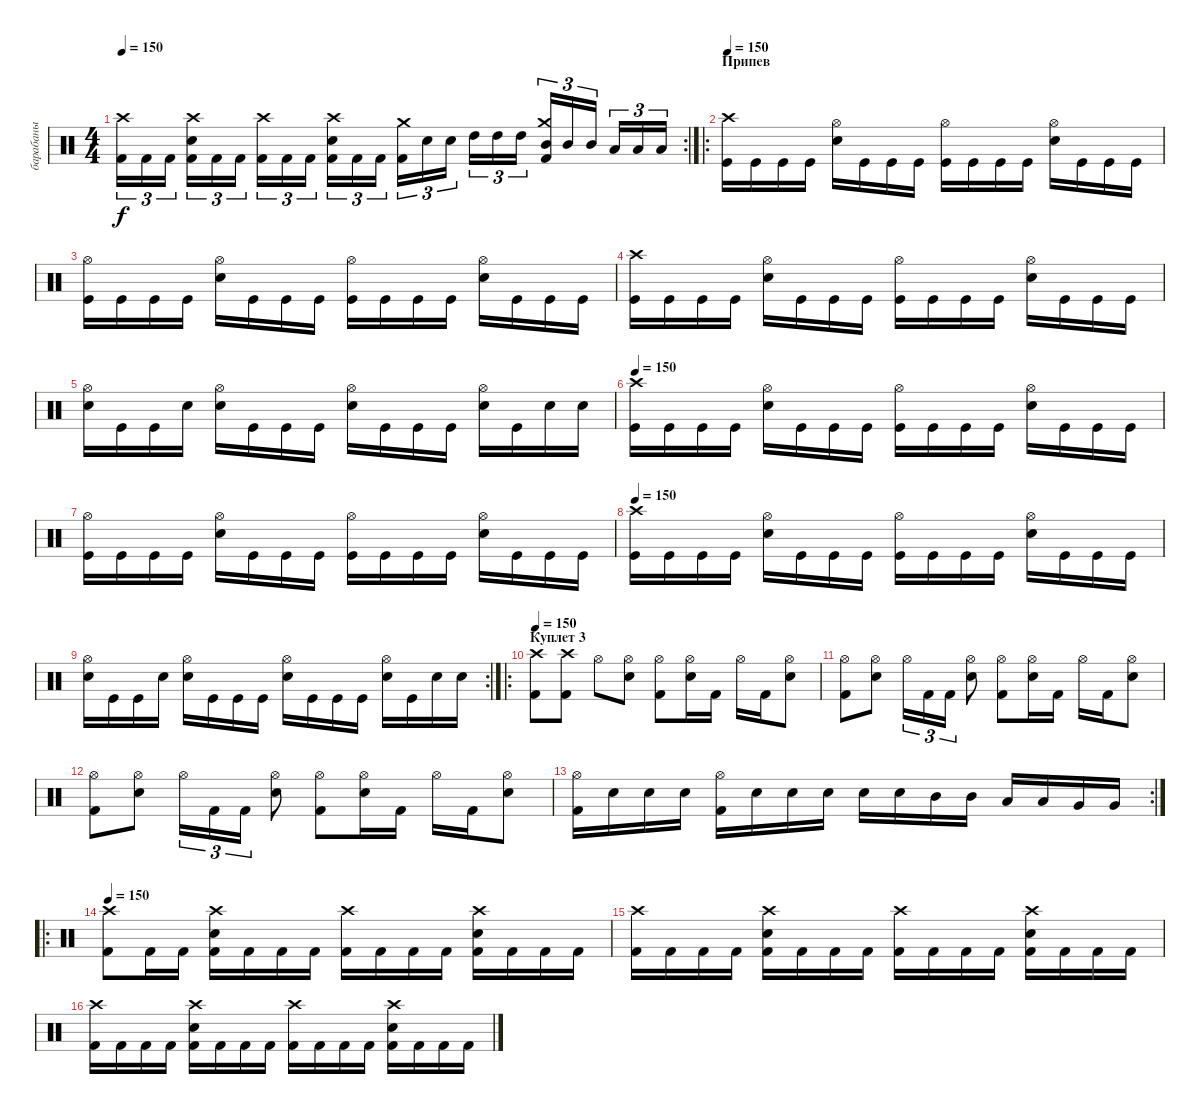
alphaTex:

\track ("барабаны" "барабаны") {instrument percussion}
\staff {score}
\articulation defaults
\rc 2
\ts (4 4)
\tempo 150
\clef neutral
\ks c
("Crash high (hit)" "Kick (hit) 2").16{tu (3 2) dy f} "Kick (hit) 2".16{tu (3 2)} "Kick (hit) 2".16{tu (3 2)} ("Crash high (hit)" "Electric Snare (hit)" "Kick (hit) 2").16{tu (3 2)} "Kick (hit) 2".16{tu (3 2)} "Kick (hit) 2".16{tu (3 2)} ("Crash high (hit)" "Kick (hit) 2").16{tu (3 2)} "Kick (hit) 2".16{tu (3 2)} "Kick (hit) 2".16{tu (3 2)} ("Crash high (hit)" "Electric Snare (hit)" "Kick (hit) 2").16{tu (3 2)} "Kick (hit) 2".16{tu (3 2)} "Kick (hit) 2".16{tu (3 2)} ("Crash medium (hit)" "Kick (hit) 2").16{tu (3 2)} "Electric Snare (hit)".16{tu (3 2)} "Electric Snare (hit)".16{tu (3 2)} "High Tom (hit)".16{tu (3 2)} "High Tom (hit)".16{tu (3 2)} "High Tom (hit)".16{tu (3 2)} ("Crash medium (hit)" "Mid Tom (hit)" "Kick (hit) 2").16{tu (3 2)} "Mid Tom (hit)".16{tu (3 2)} "Mid Tom (hit)".16{tu (3 2)} "Low Tom (hit)".16{tu (3 2)} "Low Tom (hit)".16{tu (3 2)} "Low Tom (hit)".16{tu (3 2)} |
\ro
\section ("" "Припев")
\tempo 150
("Crash high (hit)" "Kick (hit)").16 "Kick (hit)".16 "Kick (hit)".16 "Kick (hit)".16 ("Hi-Hat (open)" "Electric Snare (hit)").16 "Kick (hit)".16 "Kick (hit)".16 "Kick (hit)".16 ("Hi-Hat (open)" "Kick (hit)").16 "Kick (hit)".16 "Kick (hit)".16 "Kick (hit)".16 ("Hi-Hat (open)" "Electric Snare (hit)").16 "Kick (hit)".16 "Kick (hit)".16 "Kick (hit)".16 |
("Hi-Hat (open)" "Kick (hit)").16 "Kick (hit)".16 "Kick (hit)".16 "Kick (hit)".16 ("Hi-Hat (open)" "Electric Snare (hit)").16 "Kick (hit)".16 "Kick (hit)".16 "Kick (hit)".16 ("Hi-Hat (open)" "Kick (hit)").16 "Kick (hit)".16 "Kick (hit)".16 "Kick (hit)".16 ("Hi-Hat (open)" "Electric Snare (hit)").16 "Kick (hit)".16 "Kick (hit)".16 "Kick (hit)".16 |
("Crash high (hit)" "Kick (hit)").16 "Kick (hit)".16 "Kick (hit)".16 "Kick (hit)".16 ("Hi-Hat (open)" "Electric Snare (hit)").16 "Kick (hit)".16 "Kick (hit)".16 "Kick (hit)".16 ("Hi-Hat (open)" "Kick (hit)").16 "Kick (hit)".16 "Kick (hit)".16 "Kick (hit)".16 ("Hi-Hat (open)" "Electric Snare (hit)").16 "Kick (hit)".16 "Kick (hit)".16 "Kick (hit)".16 |
("Hi-Hat (open)" "Electric Snare (hit)").16 "Kick (hit)".16 "Kick (hit)".16 "Electric Snare (hit)".16 ("Hi-Hat (open)" "Electric Snare (hit)").16 "Kick (hit)".16 "Kick (hit)".16 "Kick (hit)".16 ("Hi-Hat (open)" "Electric Snare (hit)").16 "Kick (hit)".16 "Kick (hit)".16 "Kick (hit)".16 ("Hi-Hat (open)" "Electric Snare (hit)").16 "Kick (hit)".16 "Electric Snare (hit)".16 "Electric Snare (hit)".16 |
\tempo 150
("Crash high (hit)" "Kick (hit)").16 "Kick (hit)".16 "Kick (hit)".16 "Kick (hit)".16 ("Hi-Hat (open)" "Electric Snare (hit)").16 "Kick (hit)".16 "Kick (hit)".16 "Kick (hit)".16 ("Hi-Hat (open)" "Kick (hit)").16 "Kick (hit)".16 "Kick (hit)".16 "Kick (hit)".16 ("Hi-Hat (open)" "Electric Snare (hit)").16 "Kick (hit)".16 "Kick (hit)".16 "Kick (hit)".16 |
("Hi-Hat (open)" "Kick (hit)").16 "Kick (hit)".16 "Kick (hit)".16 "Kick (hit)".16 ("Hi-Hat (open)" "Electric Snare (hit)").16 "Kick (hit)".16 "Kick (hit)".16 "Kick (hit)".16 ("Hi-Hat (open)" "Kick (hit)").16 "Kick (hit)".16 "Kick (hit)".16 "Kick (hit)".16 ("Hi-Hat (open)" "Electric Snare (hit)").16 "Kick (hit)".16 "Kick (hit)".16 "Kick (hit)".16 |
\tempo 150
("Crash high (hit)" "Kick (hit)").16 "Kick (hit)".16 "Kick (hit)".16 "Kick (hit)".16 ("Hi-Hat (open)" "Electric Snare (hit)").16 "Kick (hit)".16 "Kick (hit)".16 "Kick (hit)".16 ("Hi-Hat (open)" "Kick (hit)").16 "Kick (hit)".16 "Kick (hit)".16 "Kick (hit)".16 ("Hi-Hat (open)" "Electric Snare (hit)").16 "Kick (hit)".16 "Kick (hit)".16 "Kick (hit)".16 |
\rc 2
("Hi-Hat (open)" "Electric Snare (hit)").16 "Kick (hit)".16 "Kick (hit)".16 "Electric Snare (hit)".16 ("Hi-Hat (open)" "Electric Snare (hit)").16 "Kick (hit)".16 "Kick (hit)".16 "Kick (hit)".16 ("Hi-Hat (open)" "Electric Snare (hit)").16 "Kick (hit)".16 "Kick (hit)".16 "Kick (hit)".16 ("Hi-Hat (open)" "Electric Snare (hit)").16 "Kick (hit)".16 "Electric Snare (hit)".16 "Electric Snare (hit)".16 |
\ro
\section ("" "Куплет 3")
\tempo 150
("Crash high (hit)" "Kick (hit) 2").8 ("Crash high (hit)" "Kick (hit) 2").8 "Hi-Hat (open)".8 ("Hi-Hat (open)" "Electric Snare (hit)").8 ("Hi-Hat (open)" "Kick (hit) 2").8 ("Hi-Hat (open)" "Electric Snare (hit)").16 "Kick (hit) 2".16 "Hi-Hat (open)".16 "Kick (hit) 2".16 ("Hi-Hat (open)" "Electric Snare (hit)").8 |
("Hi-Hat (open)" "Kick (hit) 2").8 ("Hi-Hat (open)" "Electric Snare (hit)").8 "Hi-Hat (open)".16{tu (3 2)} "Kick (hit) 2".16{tu (3 2)} "Kick (hit) 2".16{tu (3 2)} ("Hi-Hat (open)" "Electric Snare (hit)").8 ("Hi-Hat (open)" "Kick (hit) 2").8 ("Hi-Hat (open)" "Electric Snare (hit)").16 "Kick (hit) 2".16 "Hi-Hat (open)".16 "Kick (hit) 2".16 ("Hi-Hat (open)" "Electric Snare (hit)").8 |
("Hi-Hat (open)" "Kick (hit) 2").8 ("Hi-Hat (open)" "Electric Snare (hit)").8 "Hi-Hat (open)".16{tu (3 2)} "Kick (hit) 2".16{tu (3 2)} "Kick (hit) 2".16{tu (3 2)} ("Hi-Hat (open)" "Electric Snare (hit)").8 ("Hi-Hat (open)" "Kick (hit) 2").8 ("Hi-Hat (open)" "Electric Snare (hit)").16 "Kick (hit) 2".16 "Hi-Hat (open)".16 "Kick (hit) 2".16 ("Hi-Hat (open)" "Electric Snare (hit)").8 |
\rc 2
("Hi-Hat (open)" "Kick (hit) 2").16 "Electric Snare (hit)".16 "Electric Snare (hit)".16 "Electric Snare (hit)".16 ("Hi-Hat (open)" "Kick (hit) 2").16 "Electric Snare (hit)".16 "Electric Snare (hit)".16 "Electric Snare (hit)".16 "Electric Snare (hit)".16 "Electric Snare (hit)".16 "Mid Tom (hit)".16 "Mid Tom (hit)".16 "Low Tom (hit)".16 "Low Tom (hit)".16 "Very Low Tom (hit)".16 "Very Low Tom (hit)".16 |
\ro
\tempo 150
("Crash high (hit)" "Kick (hit) 2").8 "Kick (hit) 2".16 "Kick (hit) 2".16 ("Crash high (hit)" "Electric Snare (hit)" "Kick (hit) 2").16 "Kick (hit) 2".16 "Kick (hit) 2".16 "Kick (hit) 2".16 ("Crash high (hit)" "Kick (hit) 2").16 "Kick (hit) 2".16 "Kick (hit) 2".16 "Kick (hit) 2".16 ("Crash high (hit)" "Electric Snare (hit)" "Kick (hit) 2").16 "Kick (hit) 2".16 "Kick (hit) 2".16 "Kick (hit) 2".16 |
("Crash high (hit)" "Kick (hit) 2").16 "Kick (hit) 2".16 "Kick (hit) 2".16 "Kick (hit) 2".16 ("Crash high (hit)" "Electric Snare (hit)" "Kick (hit) 2").16 "Kick (hit) 2".16 "Kick (hit) 2".16 "Kick (hit) 2".16 ("Crash high (hit)" "Kick (hit) 2").16 "Kick (hit) 2".16 "Kick (hit) 2".16 "Kick (hit) 2".16 ("Crash high (hit)" "Electric Snare (hit)" "Kick (hit) 2").16 "Kick (hit) 2".16 "Kick (hit) 2".16 "Kick (hit) 2".16 |
("Crash high (hit)" "Kick (hit) 2").16 "Kick (hit) 2".16 "Kick (hit) 2".16 "Kick (hit) 2".16 ("Crash high (hit)" "Electric Snare (hit)" "Kick (hit) 2").16 "Kick (hit) 2".16 "Kick (hit) 2".16 "Kick (hit) 2".16 ("Crash high (hit)" "Kick (hit) 2").16 "Kick (hit) 2".16 "Kick (hit) 2".16 "Kick (hit) 2".16 ("Crash high (hit)" "Electric Snare (hit)" "Kick (hit) 2").16 "Kick (hit) 2".16 "Kick (hit) 2".16 "Kick (hit) 2".16
